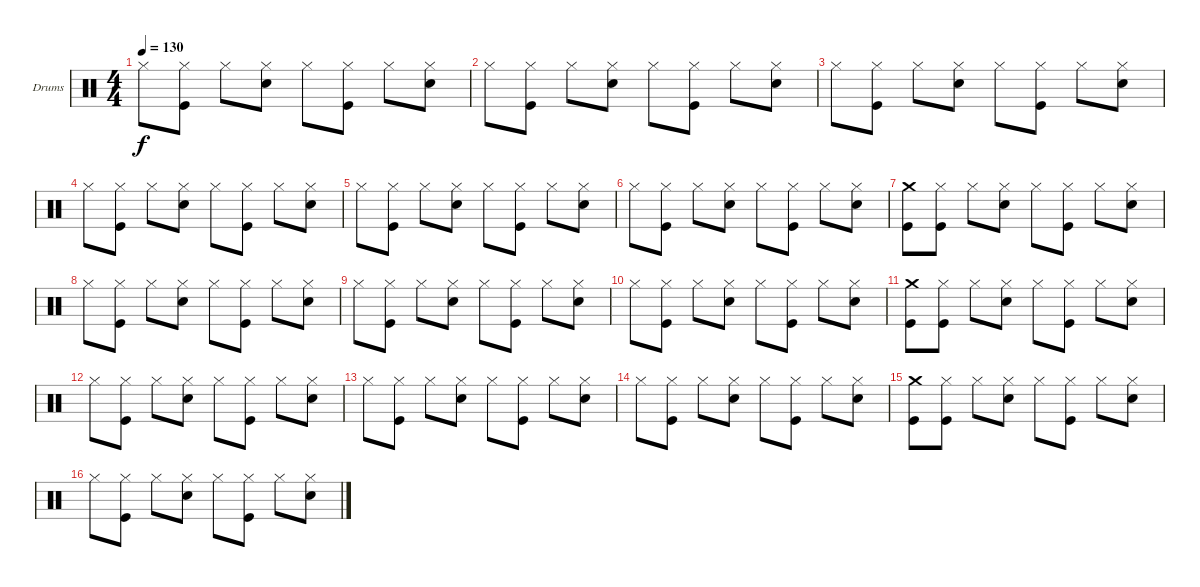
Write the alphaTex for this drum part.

\bracketExtendMode groupsimilarinstruments
\firstSystemTrackNameOrientation horizontal
\otherSystemsTrackNameOrientation horizontal
\track ("Drumkit" "Drums") {instrument percussion}
\staff {score}
\articulation defaults
\ts (4 4)
\tempo 130
\clef neutral
\ks c "Hi-Hat (closed)".8{dy f}
("Hi-Hat (closed)" "Kick (hit)").8 "Hi-Hat (closed)".8 ("Hi-Hat (closed)" "Snare (hit) 2").8 "Hi-Hat (closed)".8 ("Hi-Hat (closed)" "Kick (hit)").8 "Hi-Hat (closed)".8 ("Hi-Hat (closed)" "Snare (hit) 2").8 |
"Hi-Hat (closed)".8 ("Hi-Hat (closed)" "Kick (hit)").8 "Hi-Hat (closed)".8 ("Hi-Hat (closed)" "Snare (hit) 2").8 "Hi-Hat (closed)".8 ("Hi-Hat (closed)" "Kick (hit)").8 "Hi-Hat (closed)".8 ("Hi-Hat (closed)" "Snare (hit) 2").8 |
"Hi-Hat (closed)".8 ("Hi-Hat (closed)" "Kick (hit)").8 "Hi-Hat (closed)".8 ("Hi-Hat (closed)" "Snare (hit) 2").8 "Hi-Hat (closed)".8 ("Hi-Hat (closed)" "Kick (hit)").8 "Hi-Hat (closed)".8 ("Hi-Hat (closed)" "Snare (hit) 2").8 |
"Hi-Hat (closed)".8 ("Hi-Hat (closed)" "Kick (hit)").8 "Hi-Hat (closed)".8 ("Hi-Hat (closed)" "Snare (hit) 2").8 "Hi-Hat (closed)".8 ("Hi-Hat (closed)" "Kick (hit)").8 "Hi-Hat (closed)".8 ("Hi-Hat (closed)" "Snare (hit) 2").8 |
"Hi-Hat (closed)".8 ("Hi-Hat (closed)" "Kick (hit)").8 "Hi-Hat (closed)".8 ("Hi-Hat (closed)" "Snare (hit) 2").8 "Hi-Hat (closed)".8 ("Hi-Hat (closed)" "Kick (hit)").8 "Hi-Hat (closed)".8 ("Hi-Hat (closed)" "Snare (hit) 2").8 |
"Hi-Hat (closed)".8 ("Hi-Hat (closed)" "Kick (hit)").8 "Hi-Hat (closed)".8 ("Hi-Hat (closed)" "Snare (hit) 2").8 "Hi-Hat (closed)".8 ("Hi-Hat (closed)" "Kick (hit)").8 "Hi-Hat (closed)".8 ("Hi-Hat (closed)" "Snare (hit) 2").8 |
("Crash medium (hit)" "Kick (hit)").8 ("Hi-Hat (closed)" "Kick (hit)").8 "Hi-Hat (closed)".8 ("Hi-Hat (closed)" "Snare (hit) 2").8 "Hi-Hat (closed)".8 ("Hi-Hat (closed)" "Kick (hit)").8 "Hi-Hat (closed)".8 ("Hi-Hat (closed)" "Snare (hit) 2").8 |
"Hi-Hat (closed)".8 ("Hi-Hat (closed)" "Kick (hit)").8 "Hi-Hat (closed)".8 ("Hi-Hat (closed)" "Snare (hit) 2").8 "Hi-Hat (closed)".8 ("Hi-Hat (closed)" "Kick (hit)").8 "Hi-Hat (closed)".8 ("Hi-Hat (closed)" "Snare (hit) 2").8 |
"Hi-Hat (closed)".8 ("Hi-Hat (closed)" "Kick (hit)").8 "Hi-Hat (closed)".8 ("Hi-Hat (closed)" "Snare (hit) 2").8 "Hi-Hat (closed)".8 ("Hi-Hat (closed)" "Kick (hit)").8 "Hi-Hat (closed)".8 ("Hi-Hat (closed)" "Snare (hit) 2").8 |
"Hi-Hat (closed)".8 ("Hi-Hat (closed)" "Kick (hit)").8 "Hi-Hat (closed)".8 ("Hi-Hat (closed)" "Snare (hit) 2").8 "Hi-Hat (closed)".8 ("Hi-Hat (closed)" "Kick (hit)").8 "Hi-Hat (closed)".8 ("Hi-Hat (closed)" "Snare (hit) 2").8 |
("Crash medium (hit)" "Kick (hit)").8 ("Hi-Hat (closed)" "Kick (hit)").8 "Hi-Hat (closed)".8 ("Hi-Hat (closed)" "Snare (hit) 2").8 "Hi-Hat (closed)".8 ("Hi-Hat (closed)" "Kick (hit)").8 "Hi-Hat (closed)".8 ("Hi-Hat (closed)" "Snare (hit) 2").8 |
"Hi-Hat (closed)".8 ("Hi-Hat (closed)" "Kick (hit)").8 "Hi-Hat (closed)".8 ("Hi-Hat (closed)" "Snare (hit) 2").8 "Hi-Hat (closed)".8 ("Hi-Hat (closed)" "Kick (hit)").8 "Hi-Hat (closed)".8 ("Hi-Hat (closed)" "Snare (hit) 2").8 |
"Hi-Hat (closed)".8 ("Hi-Hat (closed)" "Kick (hit)").8 "Hi-Hat (closed)".8 ("Hi-Hat (closed)" "Snare (hit) 2").8 "Hi-Hat (closed)".8 ("Hi-Hat (closed)" "Kick (hit)").8 "Hi-Hat (closed)".8 ("Hi-Hat (closed)" "Snare (hit) 2").8 |
"Hi-Hat (closed)".8 ("Hi-Hat (closed)" "Kick (hit)").8 "Hi-Hat (closed)".8 ("Hi-Hat (closed)" "Snare (hit) 2").8 "Hi-Hat (closed)".8 ("Hi-Hat (closed)" "Kick (hit)").8 "Hi-Hat (closed)".8 ("Hi-Hat (closed)" "Snare (hit) 2").8 |
("Crash medium (hit)" "Kick (hit)").8 ("Hi-Hat (closed)" "Kick (hit)").8 "Hi-Hat (closed)".8 ("Hi-Hat (closed)" "Snare (hit) 2").8 "Hi-Hat (closed)".8 ("Hi-Hat (closed)" "Kick (hit)").8 "Hi-Hat (closed)".8 ("Hi-Hat (closed)" "Snare (hit) 2").8 |
"Hi-Hat (closed)".8 ("Hi-Hat (closed)" "Kick (hit)").8 "Hi-Hat (closed)".8 ("Hi-Hat (closed)" "Snare (hit) 2").8 "Hi-Hat (closed)".8 ("Hi-Hat (closed)" "Kick (hit)").8 "Hi-Hat (closed)".8 ("Hi-Hat (closed)" "Snare (hit) 2").8
